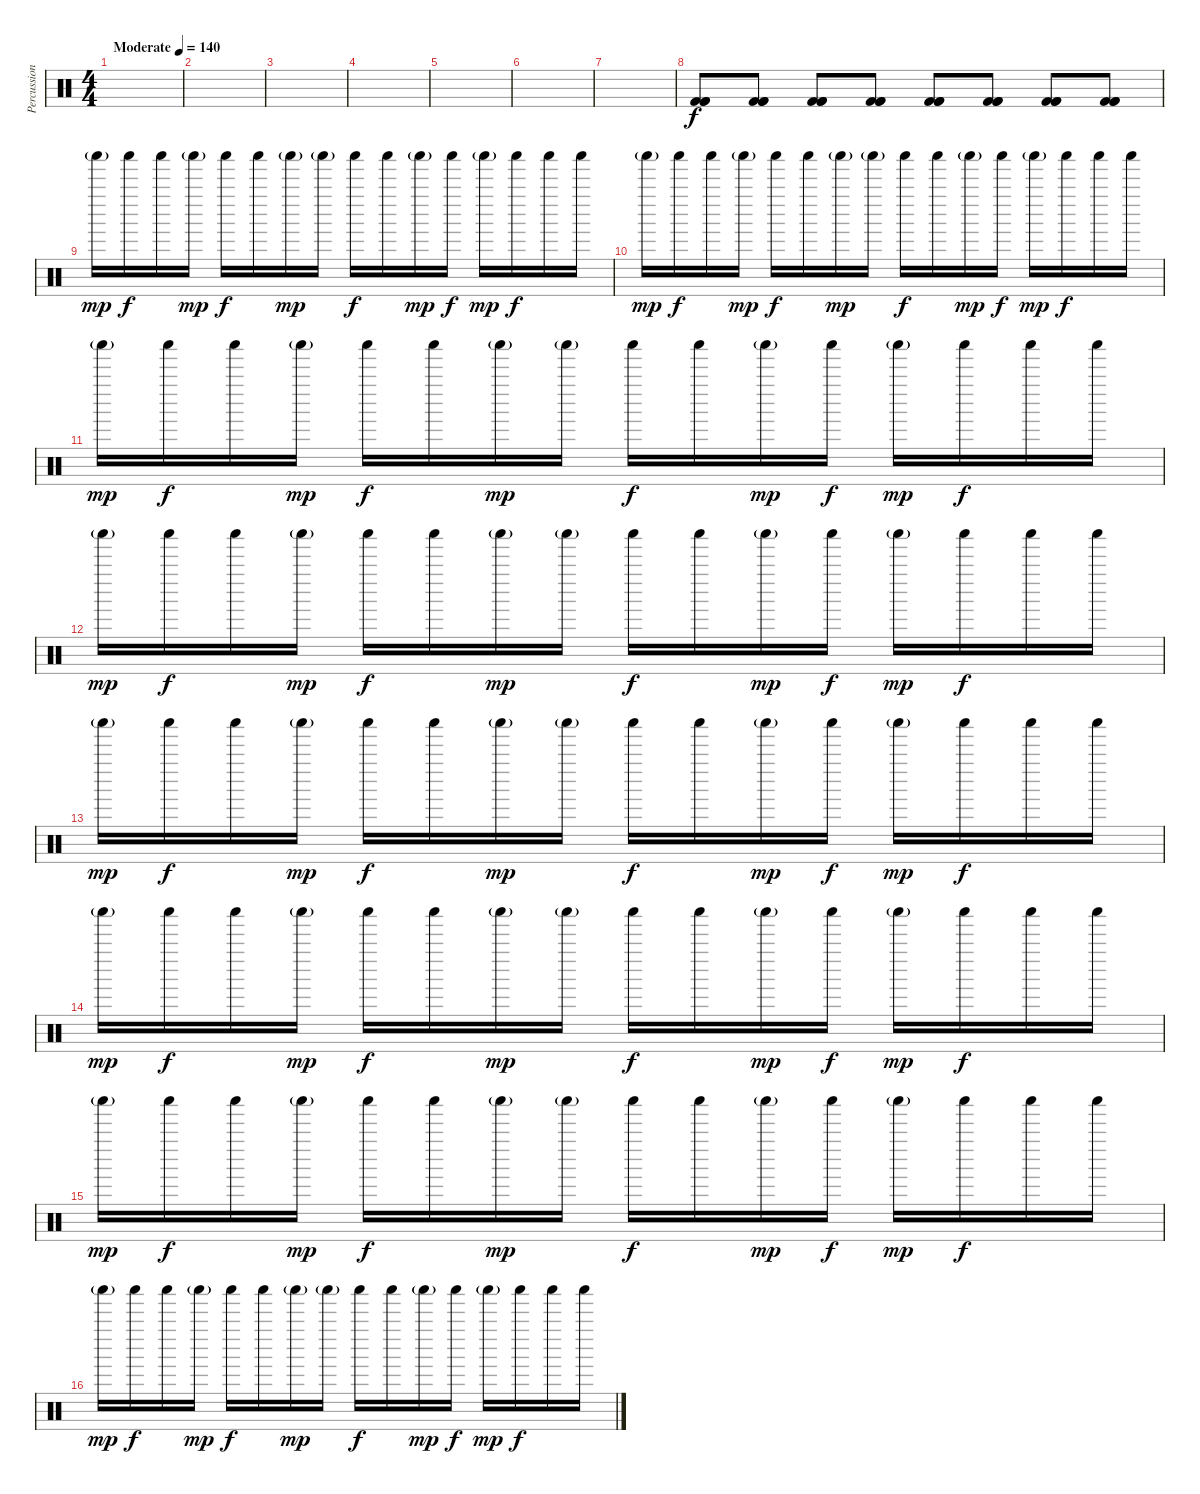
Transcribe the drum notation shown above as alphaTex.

\track ("Percussion" "Percussion") {instrument percussion}
\staff {score}
\articulation defaults
\ts (4 4)
\tempo (140 "Moderate")
\clef neutral
\ks c
|
|
|
|
|
|
|
("Kick (hit) 2" "Kick (hit) 2" "Kick (hit) 2").8 ("Kick (hit) 2" "Kick (hit) 2" "Kick (hit) 2").8 ("Kick (hit) 2" "Kick (hit) 2" "Kick (hit) 2").8 ("Kick (hit) 2" "Kick (hit) 2" "Kick (hit) 2").8 ("Kick (hit) 2" "Kick (hit) 2" "Kick (hit) 2").8 ("Kick (hit) 2" "Kick (hit) 2" "Kick (hit) 2").8 ("Kick (hit) 2" "Kick (hit) 2" "Kick (hit) 2").8 ("Kick (hit) 2" "Kick (hit) 2" "Kick (hit) 2").8 |
"Shaker (hit)"{g}.16{dy mp} "Shaker (hit)".16{dy f} "Shaker (hit)".16 "Shaker (hit)"{g}.16{dy mp} "Shaker (hit)".16{dy f} "Shaker (hit)".16 "Shaker (hit)"{g}.16{dy mp} "Shaker (hit)"{g}.16 "Shaker (hit)".16{dy f} "Shaker (hit)".16 "Shaker (hit)"{g}.16{dy mp} "Shaker (hit)".16{dy f} "Shaker (hit)"{g}.16{dy mp} "Shaker (hit)".16{dy f} "Shaker (hit)".16 "Shaker (hit)".16 |
"Shaker (hit)"{g}.16{dy mp} "Shaker (hit)".16{dy f} "Shaker (hit)".16 "Shaker (hit)"{g}.16{dy mp} "Shaker (hit)".16{dy f} "Shaker (hit)".16 "Shaker (hit)"{g}.16{dy mp} "Shaker (hit)"{g}.16 "Shaker (hit)".16{dy f} "Shaker (hit)".16 "Shaker (hit)"{g}.16{dy mp} "Shaker (hit)".16{dy f} "Shaker (hit)"{g}.16{dy mp} "Shaker (hit)".16{dy f} "Shaker (hit)".16 "Shaker (hit)".16 |
"Shaker (hit)"{g}.16{dy mp} "Shaker (hit)".16{dy f} "Shaker (hit)".16 "Shaker (hit)"{g}.16{dy mp} "Shaker (hit)".16{dy f} "Shaker (hit)".16 "Shaker (hit)"{g}.16{dy mp} "Shaker (hit)"{g}.16 "Shaker (hit)".16{dy f} "Shaker (hit)".16 "Shaker (hit)"{g}.16{dy mp} "Shaker (hit)".16{dy f} "Shaker (hit)"{g}.16{dy mp} "Shaker (hit)".16{dy f} "Shaker (hit)".16 "Shaker (hit)".16 |
"Shaker (hit)"{g}.16{dy mp} "Shaker (hit)".16{dy f} "Shaker (hit)".16 "Shaker (hit)"{g}.16{dy mp} "Shaker (hit)".16{dy f} "Shaker (hit)".16 "Shaker (hit)"{g}.16{dy mp} "Shaker (hit)"{g}.16 "Shaker (hit)".16{dy f} "Shaker (hit)".16 "Shaker (hit)"{g}.16{dy mp} "Shaker (hit)".16{dy f} "Shaker (hit)"{g}.16{dy mp} "Shaker (hit)".16{dy f} "Shaker (hit)".16 "Shaker (hit)".16 |
"Shaker (hit)"{g}.16{dy mp} "Shaker (hit)".16{dy f} "Shaker (hit)".16 "Shaker (hit)"{g}.16{dy mp} "Shaker (hit)".16{dy f} "Shaker (hit)".16 "Shaker (hit)"{g}.16{dy mp} "Shaker (hit)"{g}.16 "Shaker (hit)".16{dy f} "Shaker (hit)".16 "Shaker (hit)"{g}.16{dy mp} "Shaker (hit)".16{dy f} "Shaker (hit)"{g}.16{dy mp} "Shaker (hit)".16{dy f} "Shaker (hit)".16 "Shaker (hit)".16 |
"Shaker (hit)"{g}.16{dy mp} "Shaker (hit)".16{dy f} "Shaker (hit)".16 "Shaker (hit)"{g}.16{dy mp} "Shaker (hit)".16{dy f} "Shaker (hit)".16 "Shaker (hit)"{g}.16{dy mp} "Shaker (hit)"{g}.16 "Shaker (hit)".16{dy f} "Shaker (hit)".16 "Shaker (hit)"{g}.16{dy mp} "Shaker (hit)".16{dy f} "Shaker (hit)"{g}.16{dy mp} "Shaker (hit)".16{dy f} "Shaker (hit)".16 "Shaker (hit)".16 |
"Shaker (hit)"{g}.16{dy mp} "Shaker (hit)".16{dy f} "Shaker (hit)".16 "Shaker (hit)"{g}.16{dy mp} "Shaker (hit)".16{dy f} "Shaker (hit)".16 "Shaker (hit)"{g}.16{dy mp} "Shaker (hit)"{g}.16 "Shaker (hit)".16{dy f} "Shaker (hit)".16 "Shaker (hit)"{g}.16{dy mp} "Shaker (hit)".16{dy f} "Shaker (hit)"{g}.16{dy mp} "Shaker (hit)".16{dy f} "Shaker (hit)".16 "Shaker (hit)".16 |
"Shaker (hit)"{g}.16{dy mp} "Shaker (hit)".16{dy f} "Shaker (hit)".16 "Shaker (hit)"{g}.16{dy mp} "Shaker (hit)".16{dy f} "Shaker (hit)".16 "Shaker (hit)"{g}.16{dy mp} "Shaker (hit)"{g}.16 "Shaker (hit)".16{dy f} "Shaker (hit)".16 "Shaker (hit)"{g}.16{dy mp} "Shaker (hit)".16{dy f} "Shaker (hit)"{g}.16{dy mp} "Shaker (hit)".16{dy f} "Shaker (hit)".16 "Shaker (hit)".16
